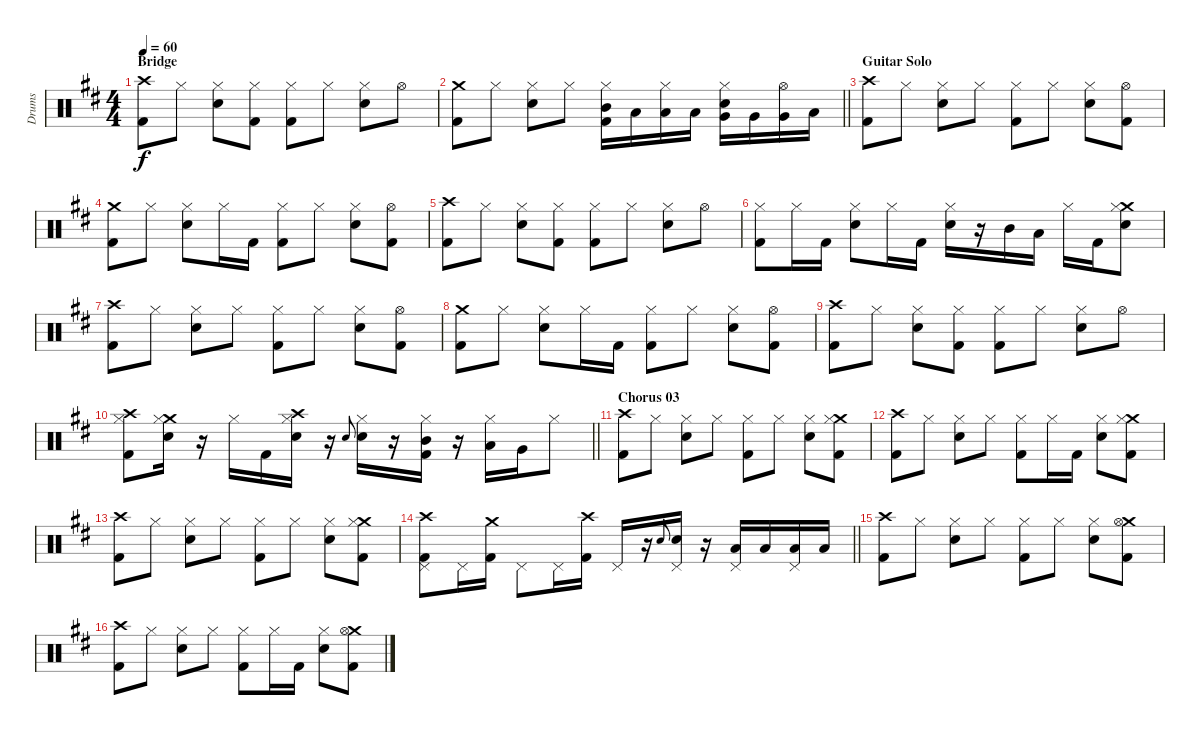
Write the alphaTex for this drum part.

\track ("Drums" "Drums") {instrument percussion}
\staff
\articulation defaults
\ts (4 4)
\section ("" "Bridge")
\tempo 60
\clef neutral
\ks d
("Crash high (hit)" "Kick (hit) 2").8{dy f} "Hi-Hat (closed)".8 ("Hi-Hat (closed)" "Snare (hit) 2").8 ("Hi-Hat (closed)" "Kick (hit) 2").8 ("Hi-Hat (closed)" "Kick (hit) 2").8 "Hi-Hat (closed)".8 ("Hi-Hat (closed)" "Snare (hit) 2").8 "Hi-Hat (open)".8 |
\barLineRight lightlight
("Crash medium (hit)" "Kick (hit) 2").8 "Hi-Hat (closed)".8 ("Hi-Hat (closed)" "Snare (hit) 2").8 "Hi-Hat (closed)".8 ("Mid Tom (hit)" "Hi-Hat (closed)" "Kick (hit) 2").16 "Low Tom (hit)".16 ("Low Tom (hit)" "Hi-Hat (closed)").16 "Low Tom (hit)".16 ("Very Low Tom (hit)" "Hi-Hat (closed)" "Snare (hit) 2").16 "Very Low Tom (hit)".16 ("Very Low Tom (hit)" "Hi-Hat (open)").16 "Low Floor Tom (hit)".16 |
\section ("" "Guitar Solo")
("Crash high (hit)" "Kick (hit) 2").8 "Hi-Hat (closed)".8 ("Hi-Hat (closed)" "Snare (hit) 2").8 "Hi-Hat (closed)".8 ("Hi-Hat (closed)" "Kick (hit) 2").8 "Hi-Hat (closed)".8 ("Hi-Hat (closed)" "Snare (hit) 2").8 ("Hi-Hat (open)" "Kick (hit) 2").8 |
("Crash medium (hit)" "Kick (hit) 2").8 "Hi-Hat (closed)".8 ("Hi-Hat (closed)" "Snare (hit) 2").8 "Hi-Hat (closed)".16 "Kick (hit) 2".16 ("Hi-Hat (closed)" "Kick (hit) 2").8 "Hi-Hat (closed)".8 ("Hi-Hat (closed)" "Snare (hit) 2").8 ("Hi-Hat (open)" "Kick (hit) 2").8 |
("Crash high (hit)" "Kick (hit) 2").8 "Hi-Hat (closed)".8 ("Hi-Hat (closed)" "Snare (hit) 2").8 ("Hi-Hat (closed)" "Kick (hit) 2").8 ("Hi-Hat (closed)" "Kick (hit) 2").8 "Hi-Hat (closed)".8 ("Hi-Hat (closed)" "Snare (hit) 2").8 "Hi-Hat (open)".8 |
("Hi-Hat (closed)" "Kick (hit) 2").8 "Hi-Hat (closed)".16 "Kick (hit) 2".16 ("Hi-Hat (closed)" "Snare (hit) 2").8 "Hi-Hat (closed)".16 "Kick (hit) 2".16 ("Hi-Hat (closed)" "Snare (hit) 2").16 r.16 "Mid Tom (hit)".16 "Low Tom (hit)".16 "Hi-Hat (closed)".16 "Kick (hit) 2".16 ("Crash medium (hit)" "Hi-Hat (closed)" "Snare (hit) 2").8 |
("Crash high (hit)" "Kick (hit) 2").8 "Hi-Hat (closed)".8 ("Hi-Hat (closed)" "Snare (hit) 2").8 "Hi-Hat (closed)".8 ("Hi-Hat (closed)" "Kick (hit) 2").8 "Hi-Hat (closed)".8 ("Hi-Hat (closed)" "Snare (hit) 2").8 ("Hi-Hat (open)" "Kick (hit) 2").8 |
("Crash medium (hit)" "Kick (hit) 2").8 "Hi-Hat (closed)".8 ("Hi-Hat (closed)" "Snare (hit) 2").8 "Hi-Hat (closed)".16 "Kick (hit) 2".16 ("Hi-Hat (closed)" "Kick (hit) 2").8 "Hi-Hat (closed)".8 ("Hi-Hat (closed)" "Snare (hit) 2").8 ("Hi-Hat (open)" "Kick (hit) 2").8 |
("Crash high (hit)" "Kick (hit) 2").8 "Hi-Hat (closed)".8 ("Hi-Hat (closed)" "Snare (hit) 2").8 ("Hi-Hat (closed)" "Kick (hit) 2").8 ("Hi-Hat (closed)" "Kick (hit) 2").8 "Hi-Hat (closed)".8 ("Hi-Hat (closed)" "Snare (hit) 2").8 "Hi-Hat (open)".8 |
\barLineRight lightlight
("Crash high (hit)" "Hi-Hat (closed)" "Kick (hit) 2").8 ("Crash medium (hit)" "Hi-Hat (closed)" "Snare (hit) 2").16 r.16 "Hi-Hat (closed)".16 "Kick (hit) 2".16 ("Crash high (hit)" "Hi-Hat (closed)" "Snare (hit) 2").16 r.16 "Snare (hit) 2".8{gr onbeat} ("Hi-Hat (closed)" "Snare (hit) 2").16 r.16 ("Mid Tom (hit)" "Hi-Hat (closed)" "Kick (hit) 2").16 r.16 ("Low Tom (hit)" "Hi-Hat (closed)").16 "Very Low Tom (hit)".16 "Hi-Hat (closed)".8 |
\section ("" "Chorus 03")
("Crash high (hit)" "Kick (hit) 2").8 "Hi-Hat (closed)".8 ("Hi-Hat (closed)" "Snare (hit) 2").8 "Hi-Hat (closed)".8 ("Hi-Hat (closed)" "Kick (hit) 2").8 "Hi-Hat (closed)".8 ("Hi-Hat (closed)" "Snare (hit) 2").8 ("Crash medium (hit)" "Hi-Hat (closed)" "Kick (hit) 2").8 |
("Crash high (hit)" "Kick (hit) 2").8 "Hi-Hat (closed)".8 ("Hi-Hat (closed)" "Snare (hit) 2").8 "Hi-Hat (closed)".8 ("Hi-Hat (closed)" "Kick (hit) 2").8 "Hi-Hat (closed)".16 "Kick (hit) 2".16 ("Hi-Hat (closed)" "Snare (hit) 2").8 ("Crash medium (hit)" "Hi-Hat (closed)" "Kick (hit) 2").8 |
("Crash high (hit)" "Kick (hit) 2").8 "Hi-Hat (closed)".8 ("Hi-Hat (closed)" "Snare (hit) 2").8 "Hi-Hat (closed)".8 ("Hi-Hat (closed)" "Kick (hit) 2").8 "Hi-Hat (closed)".8 ("Hi-Hat (closed)" "Snare (hit) 2").8 ("Crash medium (hit)" "Hi-Hat (closed)" "Kick (hit) 2").8 |
\barLineRight lightlight
("Crash high (hit)" "Pedal Hi-Hat (hit)" "Kick (hit) 2").8 "Pedal Hi-Hat (hit)".16 ("Crash medium (hit)" "Kick (hit) 2").16 "Pedal Hi-Hat (hit)".8 "Pedal Hi-Hat (hit)".16 ("Crash high (hit)" "Kick (hit) 2").16 "Pedal Hi-Hat (hit)".16 r.16 "Snare (hit) 2".8{gr onbeat} ("Pedal Hi-Hat (hit)" "Snare (hit) 2").16 r.16 ("Low Tom (hit)" "Pedal Hi-Hat (hit)").16 "Low Tom (hit)".16 ("Low Tom (hit)" "Pedal Hi-Hat (hit)").16 "Low Tom (hit)".16 |
("Crash high (hit)" "Kick (hit) 2").8 "Hi-Hat (closed)".8 ("Hi-Hat (closed)" "Snare (hit) 2").8 "Hi-Hat (closed)".8 ("Hi-Hat (closed)" "Kick (hit) 2").8 "Hi-Hat (closed)".8 ("Hi-Hat (closed)" "Snare (hit) 2").8 ("Crash medium (hit)" "Hi-Hat (open)" "Kick (hit) 2").8 |
("Crash high (hit)" "Kick (hit) 2").8 "Hi-Hat (closed)".8 ("Hi-Hat (closed)" "Snare (hit) 2").8 "Hi-Hat (closed)".8 ("Hi-Hat (closed)" "Kick (hit) 2").8 "Hi-Hat (closed)".16 "Kick (hit) 2".16 ("Hi-Hat (closed)" "Snare (hit) 2").8 ("Crash medium (hit)" "Hi-Hat (open)" "Kick (hit) 2").8
